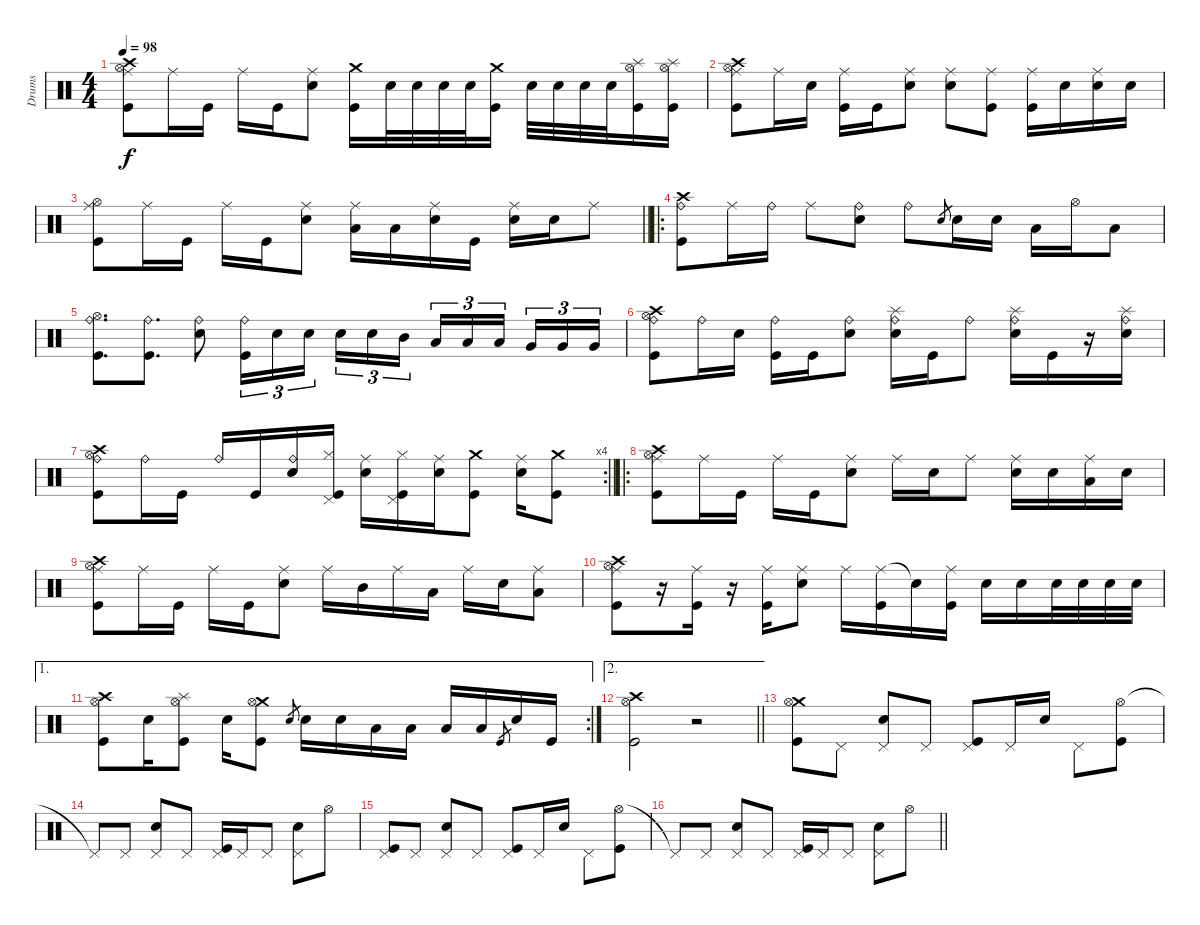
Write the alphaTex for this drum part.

\track ("Drums" "Drums") {instrument percussion}
\staff {score}
\articulation defaults
\ts (4 4)
\tempo 98
\clef neutral
\ks aminor
("Ride (middle)" "Crash high (hit)" "Hi-Hat (open)" "Kick (hit)").8{dy f} "Ride (middle)".16 "Kick (hit)".16 "Ride (middle)".16 "Kick (hit)".16 ("Ride (middle)" "Electric Snare (hit)").8 ("Crash medium (hit)" "Kick (hit)").16 "Electric Snare (hit)".32 "Electric Snare (hit)".32 "Electric Snare (hit)".32 "Electric Snare (hit)".32 ("Crash medium (hit)" "Kick (hit)").16 "Electric Snare (hit)".32 "Electric Snare (hit)".32 "Electric Snare (hit)".32 "Electric Snare (hit)".32 ("Splash (hit)" "Hi-Hat (open)" "Kick (hit)").16 ("Splash (hit)" "Hi-Hat (open)" "Kick (hit)").16 |
("Ride (middle)" "Crash high (hit)" "Hi-Hat (open)" "Kick (hit)").8 "Ride (middle)".16 "Electric Snare (hit)".16 ("Ride (middle)" "Kick (hit)").16 "Kick (hit)".16 ("Ride (middle)" "Electric Snare (hit)").8 ("Ride (middle)" "Electric Snare (hit)").8 ("Ride (middle)" "Kick (hit)").8 ("Ride (middle)" "Kick (hit)").16 "Electric Snare (hit)".16 ("Ride (middle)" "Electric Snare (hit)").16 "Electric Snare (hit)".16 |
\barLineRight lightlight
("Ride (middle)" "Hi-Hat (open)" "Kick (hit)").8 "Ride (middle)".16 "Kick (hit)".16 "Ride (middle)".16 "Kick (hit)".16 ("Ride (middle)" "Electric Snare (hit)").8 ("Ride (middle)" "Low Tom (hit)").16 "Low Tom (hit)".16 ("Ride (middle)" "Electric Snare (hit)").16 "Kick (hit)".16 ("Ride (middle)" "Electric Snare (hit)").16 "Electric Snare (hit)".16 "Ride (middle)".8 |
\ro
("Crash high (hit)" "Ride (bell)" "Kick (hit)").8 "Ride (middle)".16 "Ride (bell)".16 "Ride (middle)".8 ("Ride (bell)" "Electric Snare (hit)").8 "Ride (bell)".8 "Electric Snare (hit)".8{gr} "Electric Snare (hit)".16 "Electric Snare (hit)".16 "Low Tom (hit)".16 "Hi-Hat (open)".16 "Low Tom (hit)".8 |
("Ride (bell)" "Hi-Hat (open)" "Kick (hit)").8{d} ("Ride (bell)" "Kick (hit)").8{d} ("Ride (bell)" "Electric Snare (hit)").8 ("Ride (bell)" "Kick (hit)").16{tu (3 2)} "Electric Snare (hit)".16{tu (3 2)} "Electric Snare (hit)".16{tu (3 2) beam splitsecondary} "Electric Snare (hit)".16{tu (3 2)} "Electric Snare (hit)".16{tu (3 2)} "Mid Tom (hit)".16{tu (3 2)} "Low Tom (hit)".16{tu (3 2)} "Low Tom (hit)".16{tu (3 2)} "Low Tom (hit)".16{tu (3 2) beam splitsecondary} "Very Low Tom (hit)".16{tu (3 2)} "Very Low Tom (hit)".16{tu (3 2)} "Very Low Tom (hit)".16{tu (3 2)} |
("Crash high (hit)" "Ride (bell)" "Hi-Hat (open)" "Kick (hit)").8 "Ride (bell)".16 "Electric Snare (hit)".16 ("Ride (bell)" "Kick (hit)").16 "Kick (hit)".16 ("Ride (bell)" "Electric Snare (hit)").8 ("Splash (hit)" "Ride (bell)" "Electric Snare (hit)").16 "Kick (hit)".16 "Ride (bell)".8 ("Splash (hit)" "Ride (bell)" "Electric Snare (hit)").16 "Kick (hit)".16 r.16 ("Splash (hit)" "Ride (bell)" "Electric Snare (hit)").16 |
\rc 4
\barLineRight lightlight
("Ride (bell)" "Crash high (hit)" "Hi-Hat (open)" "Kick (hit)").8 "Ride (bell)".16 "Kick (hit)".16 "Ride (bell)".16 "Kick (hit)".16 ("Ride (bell)" "Electric Snare (hit)").16 ("Hi-Hat (closed)" "Pedal Hi-Hat (hit)" "Kick (hit)").16 ("Ride (middle)" "Electric Snare (hit)").16 ("Hi-Hat (closed)" "Pedal Hi-Hat (hit)" "Kick (hit)").16 ("Ride (middle)" "Electric Snare (hit)").16 ("Crash medium (hit)" "Kick (hit)").8 ("Ride (middle)" "Electric Snare (hit)").16 ("Crash medium (hit)" "Kick (hit)").8 |
\ro
("Ride (middle)" "Crash high (hit)" "Hi-Hat (open)" "Kick (hit)").8 "Ride (middle)".16 "Kick (hit)".16 "Ride (middle)".16 "Kick (hit)".16 ("Ride (middle)" "Electric Snare (hit)").8 "Ride (middle)".16 "Electric Snare (hit)".16 "Ride (middle)".8 ("Ride (middle)" "Electric Snare (hit)").16 "Electric Snare (hit)".16 ("Ride (middle)" "Low Tom (hit)").16 "Electric Snare (hit)".16 |
("Ride (middle)" "Crash high (hit)" "Hi-Hat (open)" "Kick (hit)").8 "Ride (middle)".16 "Kick (hit)".16 "Ride (middle)".16 "Kick (hit)".16 ("Ride (middle)" "Electric Snare (hit)").8 "Ride (middle)".16 "Mid Tom (hit)".16 "Ride (middle)".16 "Low Tom (hit)".16 "Ride (middle)".16 "Electric Snare (hit)".16 ("Ride (middle)" "Low Tom (hit)").8 |
("Ride (middle)" "Crash high (hit)" "Hi-Hat (open)" "Kick (hit)").8 r.16 ("Ride (middle)" "Kick (hit)").16 r.16 ("Ride (middle)" "Kick (hit)").16 ("Ride (middle)" "Electric Snare (hit)").8 "Ride (middle)".16 ("Ride (middle)" "Kick (hit)").16 "Snare (hit)"{t}.16 ("Ride (middle)" "Kick (hit)").16 "Electric Snare (hit)".16 "Electric Snare (hit)".16 "Electric Snare (hit)".32 "Electric Snare (hit)".32 "Electric Snare (hit)".32 "Electric Snare (hit)".32 |
\ae 1
\rc 2
("Crash high (hit)" "Hi-Hat (open)" "Kick (hit)").8 "Electric Snare (hit)".16 ("Splash (hit)" "Hi-Hat (open)" "Kick (hit)").8 "Electric Snare (hit)".16 ("Crash medium (hit)" "Hi-Hat (open)" "Kick (hit)").8 "Electric Snare (hit)".8{gr} "Electric Snare (hit)".16 "Electric Snare (hit)".16 "Low Tom (hit)".16 "Low Tom (hit)".16 "Low Tom (hit)".16 "Low Tom (hit)".16 "Kick (hit)".8{gr} "Electric Snare (hit)".16 "Kick (hit)".16 |
\ae 2
\barLineRight lightlight
("Crash high (hit)" "Hi-Hat (open)" "Kick (hit)").2 r.2 |
("Crash medium (hit)" "Hi-Hat (open)" "Kick (hit)").8 "Pedal Hi-Hat (hit)".8 ("Pedal Hi-Hat (hit)" "Electric Snare (hit)").8 "Pedal Hi-Hat (hit)".8 ("Pedal Hi-Hat (hit)" "Kick (hit)").8 "Pedal Hi-Hat (hit)".16 "Electric Snare (hit)".16 "Pedal Hi-Hat (hit)".8 ("Hi-Hat (open)" "Kick (hit)").8 |
"Pedal Hi-Hat (hit)"{t}.8 "Pedal Hi-Hat (hit)".8 ("Pedal Hi-Hat (hit)" "Electric Snare (hit)").8 "Pedal Hi-Hat (hit)".8 ("Pedal Hi-Hat (hit)" "Kick (hit)").16 "Pedal Hi-Hat (hit)".16 "Pedal Hi-Hat (hit)".8 ("Pedal Hi-Hat (hit)" "Electric Snare (hit)").8 "Hi-Hat (open)".8 |
("Pedal Hi-Hat (hit)" "Kick (hit)").8 "Pedal Hi-Hat (hit)".8 ("Pedal Hi-Hat (hit)" "Electric Snare (hit)").8 "Pedal Hi-Hat (hit)".8 ("Pedal Hi-Hat (hit)" "Kick (hit)").8 "Pedal Hi-Hat (hit)".16 "Electric Snare (hit)".16 "Pedal Hi-Hat (hit)".8 ("Hi-Hat (open)" "Kick (hit)").8 |
\barLineRight lightlight "Pedal Hi-Hat (hit)"{t}.8 "Pedal Hi-Hat (hit)".8
("Pedal Hi-Hat (hit)" "Electric Snare (hit)").8 "Pedal Hi-Hat (hit)".8 ("Pedal Hi-Hat (hit)" "Kick (hit)").16 "Pedal Hi-Hat (hit)".16 "Pedal Hi-Hat (hit)".8 ("Pedal Hi-Hat (hit)" "Electric Snare (hit)").8 "Hi-Hat (open)".8
